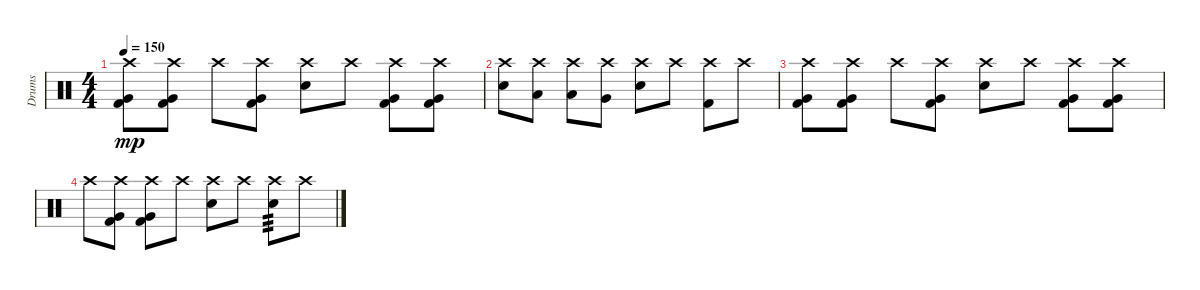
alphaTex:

\track ("Drums" "Drums") {instrument percussion}
\staff {score}
\articulation defaults
\ts (4 4)
\tempo 150
\clef neutral
\ks c
("Crash high (hit)" "Very Low Tom (hit)" "Kick (hit) 2").8{dy mp} ("Crash high (hit)" "Very Low Tom (hit)" "Kick (hit) 2").8 "Crash high (hit)".8 ("Crash high (hit)" "Very Low Tom (hit)" "Kick (hit) 2").8 ("Crash high (hit)" "Electric Snare (hit)").8 "Crash high (hit)".8 ("Crash high (hit)" "Very Low Tom (hit)" "Kick (hit) 2").8 ("Crash high (hit)" "Very Low Tom (hit)" "Kick (hit) 2").8 |
("Crash high (hit)" "Electric Snare (hit)").8 ("Crash high (hit)" "Low Tom (hit)").8 ("Crash high (hit)" "Low Tom (hit)").8 ("Crash high (hit)" "Very Low Tom (hit)").8 ("Crash high (hit)" "Electric Snare (hit)").8 "Crash high (hit)".8 ("Crash high (hit)" "Kick (hit) 2").8 "Crash high (hit)".8 |
("Crash high (hit)" "Very Low Tom (hit)" "Kick (hit) 2").8 ("Crash high (hit)" "Very Low Tom (hit)" "Kick (hit) 2").8 "Crash high (hit)".8 ("Crash high (hit)" "Very Low Tom (hit)" "Kick (hit) 2").8 ("Crash high (hit)" "Electric Snare (hit)").8 "Crash high (hit)".8 ("Crash high (hit)" "Very Low Tom (hit)" "Kick (hit) 2").8 ("Crash high (hit)" "Very Low Tom (hit)" "Kick (hit) 2").8 |
"Crash high (hit)".8 ("Crash high (hit)" "Very Low Tom (hit)" "Kick (hit) 2").8 ("Crash high (hit)" "Very Low Tom (hit)" "Kick (hit) 2").8 "Crash high (hit)".8 ("Crash high (hit)" "Electric Snare (hit)").8 "Crash high (hit)".8 ("Crash high (hit)" "Electric Snare (hit)").8{tp 3} "Crash high (hit)".8
